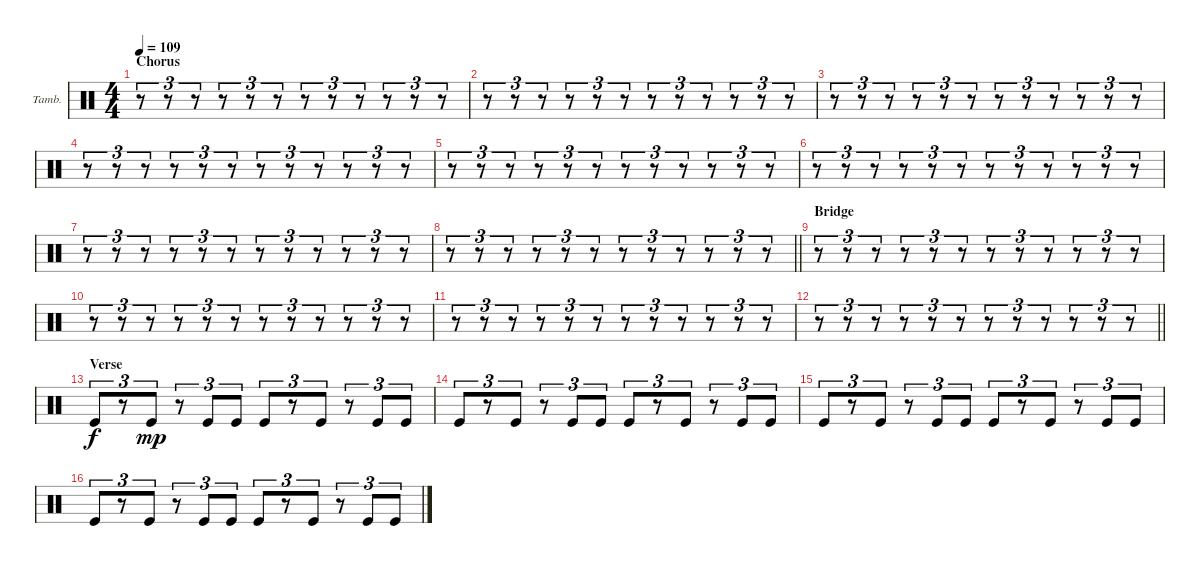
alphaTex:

\bracketExtendMode groupsimilarinstruments
\firstSystemTrackNameOrientation horizontal
\otherSystemsTrackNameOrientation horizontal
\track ("Tambourine" "Tamb.") {instrument percussion}
\staff {score}
\articulation defaults
\ts (4 4)
\section ("" "Chorus")
\tempo 109
\clef neutral
\ks c
r.8{tu (3 2) dy mp} r.8{tu (3 2)} r.8{tu (3 2)} r.8{tu (3 2)} r.8{tu (3 2)} r.8{tu (3 2)} r.8{tu (3 2)} r.8{tu (3 2)} r.8{tu (3 2)} r.8{tu (3 2)} r.8{tu (3 2)} r.8{tu (3 2)} |
r.8{tu (3 2)} r.8{tu (3 2)} r.8{tu (3 2)} r.8{tu (3 2)} r.8{tu (3 2)} r.8{tu (3 2)} r.8{tu (3 2)} r.8{tu (3 2)} r.8{tu (3 2)} r.8{tu (3 2)} r.8{tu (3 2)} r.8{tu (3 2)} |
r.8{tu (3 2)} r.8{tu (3 2)} r.8{tu (3 2)} r.8{tu (3 2)} r.8{tu (3 2)} r.8{tu (3 2)} r.8{tu (3 2)} r.8{tu (3 2)} r.8{tu (3 2)} r.8{tu (3 2)} r.8{tu (3 2)} r.8{tu (3 2)} |
r.8{tu (3 2)} r.8{tu (3 2)} r.8{tu (3 2)} r.8{tu (3 2)} r.8{tu (3 2)} r.8{tu (3 2)} r.8{tu (3 2)} r.8{tu (3 2)} r.8{tu (3 2)} r.8{tu (3 2)} r.8{tu (3 2)} r.8{tu (3 2)} |
r.8{tu (3 2)} r.8{tu (3 2)} r.8{tu (3 2)} r.8{tu (3 2)} r.8{tu (3 2)} r.8{tu (3 2)} r.8{tu (3 2)} r.8{tu (3 2)} r.8{tu (3 2)} r.8{tu (3 2)} r.8{tu (3 2)} r.8{tu (3 2)} |
r.8{tu (3 2)} r.8{tu (3 2)} r.8{tu (3 2)} r.8{tu (3 2)} r.8{tu (3 2)} r.8{tu (3 2)} r.8{tu (3 2)} r.8{tu (3 2)} r.8{tu (3 2)} r.8{tu (3 2)} r.8{tu (3 2)} r.8{tu (3 2)} |
r.8{tu (3 2)} r.8{tu (3 2)} r.8{tu (3 2)} r.8{tu (3 2)} r.8{tu (3 2)} r.8{tu (3 2)} r.8{tu (3 2)} r.8{tu (3 2)} r.8{tu (3 2)} r.8{tu (3 2)} r.8{tu (3 2)} r.8{tu (3 2)} |
\barLineRight lightlight
r.8{tu (3 2)} r.8{tu (3 2)} r.8{tu (3 2)} r.8{tu (3 2)} r.8{tu (3 2)} r.8{tu (3 2)} r.8{tu (3 2)} r.8{tu (3 2)} r.8{tu (3 2)} r.8{tu (3 2)} r.8{tu (3 2)} r.8{tu (3 2)} |
\section ("" "Bridge")
r.8{tu (3 2)} r.8{tu (3 2)} r.8{tu (3 2)} r.8{tu (3 2)} r.8{tu (3 2)} r.8{tu (3 2)} r.8{tu (3 2)} r.8{tu (3 2)} r.8{tu (3 2)} r.8{tu (3 2)} r.8{tu (3 2)} r.8{tu (3 2)} |
r.8{tu (3 2)} r.8{tu (3 2)} r.8{tu (3 2)} r.8{tu (3 2)} r.8{tu (3 2)} r.8{tu (3 2)} r.8{tu (3 2)} r.8{tu (3 2)} r.8{tu (3 2)} r.8{tu (3 2)} r.8{tu (3 2)} r.8{tu (3 2)} |
r.8{tu (3 2)} r.8{tu (3 2)} r.8{tu (3 2)} r.8{tu (3 2)} r.8{tu (3 2)} r.8{tu (3 2)} r.8{tu (3 2)} r.8{tu (3 2)} r.8{tu (3 2)} r.8{tu (3 2)} r.8{tu (3 2)} r.8{tu (3 2)} |
\barLineRight lightlight
r.8{tu (3 2)} r.8{tu (3 2)} r.8{tu (3 2)} r.8{tu (3 2)} r.8{tu (3 2)} r.8{tu (3 2)} r.8{tu (3 2)} r.8{tu (3 2)} r.8{tu (3 2)} r.8{tu (3 2)} r.8{tu (3 2)} r.8{tu (3 2)} |
\section ("" "Verse")
"Kick (hit)".8{tu (3 2) dy f} r.8{tu (3 2)} "Kick (hit)".8{tu (3 2) dy mp} r.8{tu (3 2)} "Kick (hit)".8{tu (3 2)} "Kick (hit)".8{tu (3 2)} "Kick (hit)".8{tu (3 2)} r.8{tu (3 2)} "Kick (hit)".8{tu (3 2)} r.8{tu (3 2)} "Kick (hit)".8{tu (3 2)} "Kick (hit)".8{tu (3 2)} |
"Kick (hit)".8{tu (3 2)} r.8{tu (3 2)} "Kick (hit)".8{tu (3 2)} r.8{tu (3 2)} "Kick (hit)".8{tu (3 2)} "Kick (hit)".8{tu (3 2)} "Kick (hit)".8{tu (3 2)} r.8{tu (3 2)} "Kick (hit)".8{tu (3 2)} r.8{tu (3 2)} "Kick (hit)".8{tu (3 2)} "Kick (hit)".8{tu (3 2)} |
"Kick (hit)".8{tu (3 2)} r.8{tu (3 2)} "Kick (hit)".8{tu (3 2)} r.8{tu (3 2)} "Kick (hit)".8{tu (3 2)} "Kick (hit)".8{tu (3 2)} "Kick (hit)".8{tu (3 2)} r.8{tu (3 2)} "Kick (hit)".8{tu (3 2)} r.8{tu (3 2)} "Kick (hit)".8{tu (3 2)} "Kick (hit)".8{tu (3 2)} |
"Kick (hit)".8{tu (3 2)} r.8{tu (3 2)} "Kick (hit)".8{tu (3 2)} r.8{tu (3 2)} "Kick (hit)".8{tu (3 2)} "Kick (hit)".8{tu (3 2)} "Kick (hit)".8{tu (3 2)} r.8{tu (3 2)} "Kick (hit)".8{tu (3 2)} r.8{tu (3 2)} "Kick (hit)".8{tu (3 2)} "Kick (hit)".8{tu (3 2)}
